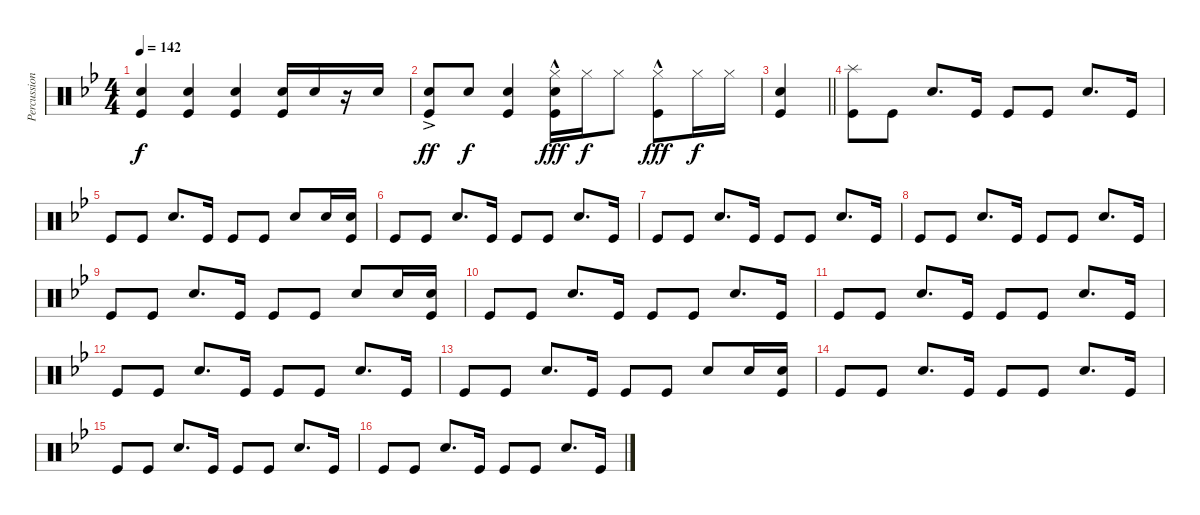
\track ("Percussion" "Percussion") {instrument percussion}
\staff {score}
\articulation defaults
\ts (4 4)
\tempo 142
\clef neutral
\ks gminor
("Snare (hit) 2" "Kick (hit)").4{dy f} ("Snare (hit) 2" "Kick (hit)").4 ("Snare (hit) 2" "Kick (hit)").4 ("Snare (hit) 2" "Kick (hit)").16 "Snare (hit) 2".16 r.16 "Snare (hit) 2".16 |
("Snare (hit) 2"{ac} "Kick (hit)").8{dy ff} "Snare (hit) 2".8{dy f} ("Snare (hit) 2" "Kick (hit)").4 ("Hi-Hat (closed)"{hac} "Snare (hit) 2"{hac} "Kick (hit)").16{dy fff} "Hi-Hat (closed)".16{dy f} "Hi-Hat (closed)".8 ("Hi-Hat (closed)"{hac} "Kick (hit)").8{dy fff} "Hi-Hat (closed)".16{dy f} "Hi-Hat (closed)".16 |
\barLineRight lightlight
("Snare (hit) 2" "Kick (hit)").4 |
("Splash (hit)" "Kick (hit)").8 "Kick (hit)".8 "Snare (hit) 2".8{d} "Kick (hit)".16 "Kick (hit)".8 "Kick (hit)".8 "Snare (hit) 2".8{d} "Kick (hit)".16 |
"Kick (hit)".8 "Kick (hit)".8 "Snare (hit) 2".8{d} "Kick (hit)".16 "Kick (hit)".8 "Kick (hit)".8 "Snare (hit) 2".8 "Snare (hit) 2".16 ("Snare (hit) 2" "Kick (hit)").16 |
"Kick (hit)".8 "Kick (hit)".8 "Snare (hit) 2".8{d} "Kick (hit)".16 "Kick (hit)".8 "Kick (hit)".8 "Snare (hit) 2".8{d} "Kick (hit)".16 |
"Kick (hit)".8 "Kick (hit)".8 "Snare (hit) 2".8{d} "Kick (hit)".16 "Kick (hit)".8 "Kick (hit)".8 "Snare (hit) 2".8{d} "Kick (hit)".16 |
"Kick (hit)".8 "Kick (hit)".8 "Snare (hit) 2".8{d} "Kick (hit)".16 "Kick (hit)".8 "Kick (hit)".8 "Snare (hit) 2".8{d} "Kick (hit)".16 |
"Kick (hit)".8 "Kick (hit)".8 "Snare (hit) 2".8{d} "Kick (hit)".16 "Kick (hit)".8 "Kick (hit)".8 "Snare (hit) 2".8 "Snare (hit) 2".16 ("Snare (hit) 2" "Kick (hit)").16 |
"Kick (hit)".8 "Kick (hit)".8 "Snare (hit) 2".8{d} "Kick (hit)".16 "Kick (hit)".8 "Kick (hit)".8 "Snare (hit) 2".8{d} "Kick (hit)".16 |
"Kick (hit)".8 "Kick (hit)".8 "Snare (hit) 2".8{d} "Kick (hit)".16 "Kick (hit)".8 "Kick (hit)".8 "Snare (hit) 2".8{d} "Kick (hit)".16 |
"Kick (hit)".8 "Kick (hit)".8 "Snare (hit) 2".8{d} "Kick (hit)".16 "Kick (hit)".8 "Kick (hit)".8 "Snare (hit) 2".8{d} "Kick (hit)".16 |
"Kick (hit)".8 "Kick (hit)".8 "Snare (hit) 2".8{d} "Kick (hit)".16 "Kick (hit)".8 "Kick (hit)".8 "Snare (hit) 2".8 "Snare (hit) 2".16 ("Snare (hit) 2" "Kick (hit)").16 |
"Kick (hit)".8 "Kick (hit)".8 "Snare (hit) 2".8{d} "Kick (hit)".16 "Kick (hit)".8 "Kick (hit)".8 "Snare (hit) 2".8{d} "Kick (hit)".16 |
"Kick (hit)".8 "Kick (hit)".8 "Snare (hit) 2".8{d} "Kick (hit)".16 "Kick (hit)".8 "Kick (hit)".8 "Snare (hit) 2".8{d} "Kick (hit)".16 |
"Kick (hit)".8 "Kick (hit)".8 "Snare (hit) 2".8{d} "Kick (hit)".16 "Kick (hit)".8 "Kick (hit)".8 "Snare (hit) 2".8{d} "Kick (hit)".16
